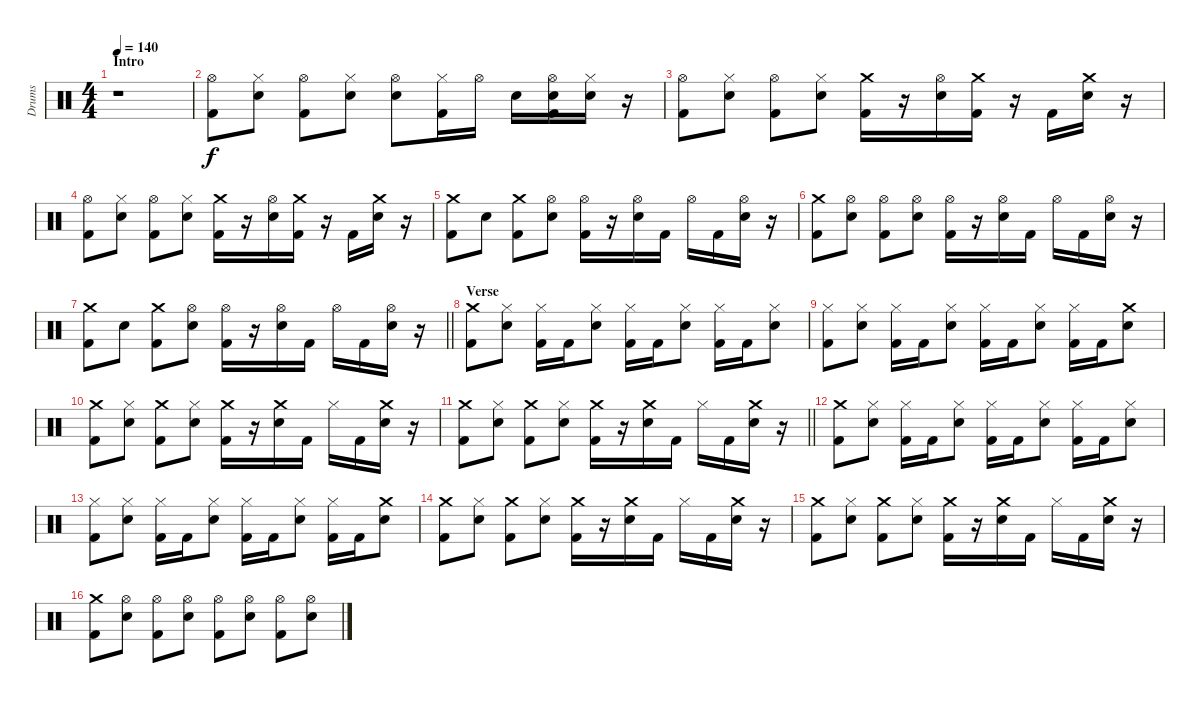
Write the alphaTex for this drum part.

\track ("Drums" "Drums") {instrument percussion}
\staff {score}
\articulation defaults
\ts (4 4)
\section ("" "Intro")
\tempo 140
\clef neutral
\ks c
r.1{dy f} |
("Hi-Hat (open)" "Kick (hit) 2").8 ("Hi-Hat (closed)" "Snare (hit) 2").8 ("Hi-Hat (open)" "Kick (hit) 2").8 ("Hi-Hat (closed)" "Snare (hit) 2").8 ("Hi-Hat (open)" "Snare (hit) 2").8 ("Hi-Hat (closed)" "Kick (hit) 2").16 "Hi-Hat (open)".16 "Snare (hit) 2".16 ("Hi-Hat (open)" "Snare (hit) 2" "Kick (hit) 2").16 ("Hi-Hat (closed)" "Snare (hit) 2").16 r.16 |
("Hi-Hat (open)" "Kick (hit) 2").8 ("Hi-Hat (closed)" "Snare (hit) 2").8 ("Hi-Hat (open)" "Kick (hit) 2").8 ("Hi-Hat (closed)" "Snare (hit) 2").8 ("Crash medium (hit)" "Kick (hit) 2").16 r.16 ("Hi-Hat (open)" "Snare (hit) 2").16 ("Crash medium (hit)" "Kick (hit) 2").16 r.16 "Kick (hit) 2".16 ("Crash medium (hit)" "Snare (hit) 2").16 r.16 |
("Hi-Hat (open)" "Kick (hit) 2").8 ("Hi-Hat (closed)" "Snare (hit) 2").8 ("Hi-Hat (open)" "Kick (hit) 2").8 ("Hi-Hat (closed)" "Snare (hit) 2").8 ("Crash medium (hit)" "Kick (hit) 2").16 r.16 ("Hi-Hat (open)" "Snare (hit) 2").16 ("Crash medium (hit)" "Kick (hit) 2").16 r.16 "Kick (hit) 2".16 ("Crash medium (hit)" "Snare (hit) 2").16 r.16 |
("Crash medium (hit)" "Kick (hit) 2").8 "Snare (hit) 2".8 ("Crash medium (hit)" "Kick (hit) 2").8 ("Hi-Hat (open)" "Snare (hit) 2").8 ("Hi-Hat (open)" "Kick (hit) 2").16 r.16 ("Hi-Hat (open)" "Snare (hit) 2").16 "Kick (hit) 2".16 "Hi-Hat (open)".16 "Kick (hit) 2".16 ("Hi-Hat (open)" "Snare (hit) 2").16 r.16 |
("Crash medium (hit)" "Kick (hit) 2").8 ("Hi-Hat (open)" "Snare (hit) 2").8 ("Hi-Hat (open)" "Kick (hit) 2").8 ("Hi-Hat (open)" "Snare (hit) 2").8 ("Hi-Hat (open)" "Kick (hit) 2").16 r.16 ("Hi-Hat (open)" "Snare (hit) 2").16 "Kick (hit) 2".16 "Hi-Hat (open)".16 "Kick (hit) 2".16 ("Hi-Hat (open)" "Snare (hit) 2").16 r.16 |
\barLineRight lightlight
("Crash medium (hit)" "Kick (hit) 2").8 "Snare (hit) 2".8 ("Crash medium (hit)" "Kick (hit) 2").8 ("Hi-Hat (open)" "Snare (hit) 2").8 ("Hi-Hat (open)" "Kick (hit) 2").16 r.16 ("Hi-Hat (open)" "Snare (hit) 2").16 "Kick (hit) 2".16 "Hi-Hat (open)".16 "Kick (hit) 2".16 ("Hi-Hat (open)" "Snare (hit) 2").16 r.16 |
\section ("" "Verse")
("Crash medium (hit)" "Kick (hit) 2").8 ("Hi-Hat (closed)" "Snare (hit) 2").8 ("Hi-Hat (closed)" "Kick (hit) 2").16 "Kick (hit) 2".16 ("Hi-Hat (closed)" "Snare (hit) 2").8 ("Hi-Hat (closed)" "Kick (hit) 2").16 "Kick (hit) 2".16 ("Hi-Hat (closed)" "Snare (hit) 2").8 ("Hi-Hat (closed)" "Kick (hit) 2").16 "Kick (hit) 2".16 ("Hi-Hat (closed)" "Snare (hit) 2").8 |
("Hi-Hat (closed)" "Kick (hit) 2").8 ("Hi-Hat (closed)" "Snare (hit) 2").8 ("Hi-Hat (closed)" "Kick (hit) 2").16 "Kick (hit) 2".16 ("Hi-Hat (closed)" "Snare (hit) 2").8 ("Hi-Hat (closed)" "Kick (hit) 2").16 "Kick (hit) 2".16 ("Hi-Hat (closed)" "Snare (hit) 2").8 ("Hi-Hat (closed)" "Kick (hit) 2").16 "Kick (hit) 2".16 ("Crash medium (hit)" "Snare (hit) 2").8 |
("Crash medium (hit)" "Kick (hit) 2").8 ("Hi-Hat (closed)" "Snare (hit) 2").8 ("Crash medium (hit)" "Kick (hit) 2").8 ("Hi-Hat (closed)" "Snare (hit) 2").8 ("Crash medium (hit)" "Kick (hit) 2").16 r.16 ("Crash medium (hit)" "Snare (hit) 2").16 "Kick (hit) 2".16 "Hi-Hat (closed)".16 "Kick (hit) 2".16 ("Crash medium (hit)" "Snare (hit) 2").16 r.16 |
\barLineRight lightlight
("Crash medium (hit)" "Kick (hit) 2").8 ("Hi-Hat (closed)" "Snare (hit) 2").8 ("Crash medium (hit)" "Kick (hit) 2").8 ("Hi-Hat (closed)" "Snare (hit) 2").8 ("Crash medium (hit)" "Kick (hit) 2").16 r.16 ("Crash medium (hit)" "Snare (hit) 2").16 "Kick (hit) 2".16 "Hi-Hat (closed)".16 "Kick (hit) 2".16 ("Crash medium (hit)" "Snare (hit) 2").16 r.16 |
("Crash medium (hit)" "Kick (hit) 2").8 ("Hi-Hat (closed)" "Snare (hit) 2").8 ("Hi-Hat (closed)" "Kick (hit) 2").16 "Kick (hit) 2".16 ("Hi-Hat (closed)" "Snare (hit) 2").8 ("Hi-Hat (closed)" "Kick (hit) 2").16 "Kick (hit) 2".16 ("Hi-Hat (closed)" "Snare (hit) 2").8 ("Hi-Hat (closed)" "Kick (hit) 2").16 "Kick (hit) 2".16 ("Hi-Hat (closed)" "Snare (hit) 2").8 |
("Hi-Hat (closed)" "Kick (hit) 2").8 ("Hi-Hat (closed)" "Snare (hit) 2").8 ("Hi-Hat (closed)" "Kick (hit) 2").16 "Kick (hit) 2".16 ("Hi-Hat (closed)" "Snare (hit) 2").8 ("Hi-Hat (closed)" "Kick (hit) 2").16 "Kick (hit) 2".16 ("Hi-Hat (closed)" "Snare (hit) 2").8 ("Hi-Hat (closed)" "Kick (hit) 2").16 "Kick (hit) 2".16 ("Crash medium (hit)" "Snare (hit) 2").8 |
("Crash medium (hit)" "Kick (hit) 2").8 ("Hi-Hat (closed)" "Snare (hit) 2").8 ("Crash medium (hit)" "Kick (hit) 2").8 ("Hi-Hat (closed)" "Snare (hit) 2").8 ("Crash medium (hit)" "Kick (hit) 2").16 r.16 ("Crash medium (hit)" "Snare (hit) 2").16 "Kick (hit) 2".16 "Hi-Hat (closed)".16 "Kick (hit) 2".16 ("Crash medium (hit)" "Snare (hit) 2").16 r.16 |
("Crash medium (hit)" "Kick (hit) 2").8 ("Hi-Hat (closed)" "Snare (hit) 2").8 ("Crash medium (hit)" "Kick (hit) 2").8 ("Hi-Hat (closed)" "Snare (hit) 2").8 ("Crash medium (hit)" "Kick (hit) 2").16 r.16 ("Crash medium (hit)" "Snare (hit) 2").16 "Kick (hit) 2".16 "Hi-Hat (closed)".16 "Kick (hit) 2".16 ("Crash medium (hit)" "Snare (hit) 2").16 r.16 |
("Crash medium (hit)" "Kick (hit) 2").8 ("Hi-Hat (open)" "Snare (hit) 2").8 ("Hi-Hat (open)" "Kick (hit) 2").8 ("Hi-Hat (open)" "Snare (hit) 2").8 ("Hi-Hat (open)" "Kick (hit) 2").8 ("Hi-Hat (open)" "Snare (hit) 2").8 ("Hi-Hat (open)" "Kick (hit) 2").8 ("Hi-Hat (open)" "Snare (hit) 2").8
